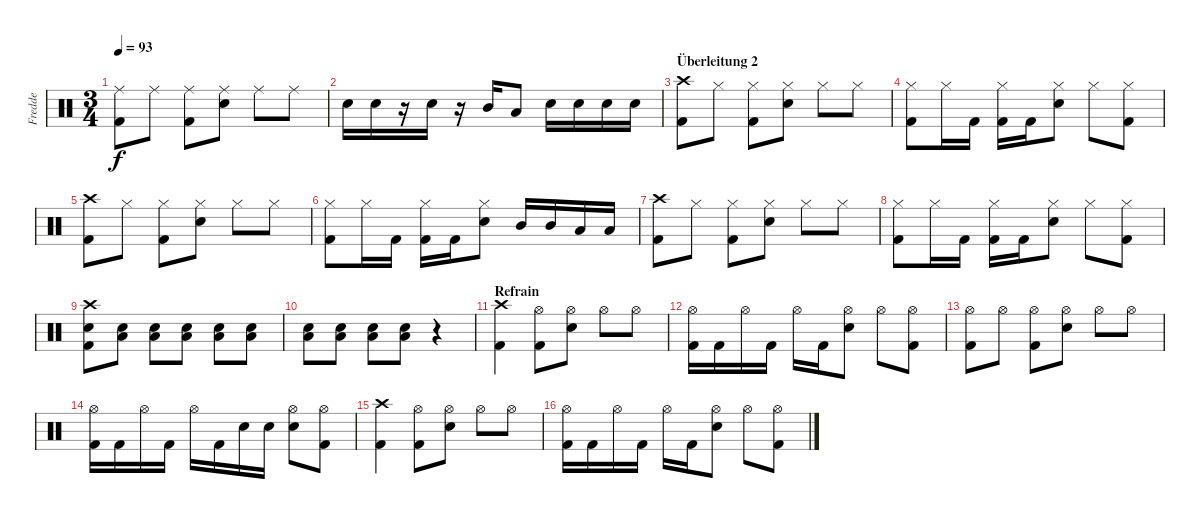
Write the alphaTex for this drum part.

\track ("Fredde" "Fredde") {instrument percussion}
\staff {score}
\articulation defaults
\ts (3 4)
\tempo 93
\clef neutral
\ks c
("Ride (middle)" "Kick (hit) 2").8{dy f} "Ride (middle)".8 ("Ride (middle)" "Kick (hit) 2").8 ("Ride (middle)" "Snare (hit) 2").8 "Ride (middle)".8 "Ride (middle)".8 |
"Snare (hit) 2".16 "Snare (hit) 2".16 r.16 "Snare (hit) 2".16 r.16 "Mid Tom (hit)".16 "Low Tom (hit)".8 "Snare (hit) 2".16 "Snare (hit) 2".16 "Snare (hit) 2".16 "Snare (hit) 2".16 |
\section ("" "Überleitung 2")
("Crash high (hit)" "Kick (hit) 2").8 "Hi-Hat (closed)".8 ("Hi-Hat (closed)" "Kick (hit) 2").8 ("Hi-Hat (closed)" "Snare (hit) 2").8 "Hi-Hat (closed)".8 "Hi-Hat (closed)".8 |
("Hi-Hat (closed)" "Kick (hit) 2").8 "Hi-Hat (closed)".16 "Kick (hit) 2".16 ("Hi-Hat (closed)" "Kick (hit) 2").16 "Kick (hit) 2".16 ("Hi-Hat (closed)" "Snare (hit) 2").8 "Hi-Hat (closed)".8 ("Hi-Hat (closed)" "Kick (hit) 2").8 |
("Crash high (hit)" "Kick (hit) 2").8 "Hi-Hat (closed)".8 ("Hi-Hat (closed)" "Kick (hit) 2").8 ("Hi-Hat (closed)" "Snare (hit) 2").8 "Hi-Hat (closed)".8 "Hi-Hat (closed)".8 |
("Hi-Hat (closed)" "Kick (hit) 2").8 "Hi-Hat (closed)".16 "Kick (hit) 2".16 ("Hi-Hat (closed)" "Kick (hit) 2").16 "Kick (hit) 2".16 ("Hi-Hat (closed)" "Snare (hit) 2").8 "Mid Tom (hit)".16 "Mid Tom (hit)".16 "Low Tom (hit)".16 "Low Tom (hit)".16 |
("Crash high (hit)" "Kick (hit) 2").8 "Hi-Hat (closed)".8 ("Hi-Hat (closed)" "Kick (hit) 2").8 ("Hi-Hat (closed)" "Snare (hit) 2").8 "Hi-Hat (closed)".8 "Hi-Hat (closed)".8 |
("Hi-Hat (closed)" "Kick (hit) 2").8 "Hi-Hat (closed)".16 "Kick (hit) 2".16 ("Hi-Hat (closed)" "Kick (hit) 2").16 "Kick (hit) 2".16 ("Hi-Hat (closed)" "Snare (hit) 2").8 "Hi-Hat (closed)".8 ("Hi-Hat (closed)" "Kick (hit) 2").8 |
("Crash high (hit)" "Snare (hit) 2" "Kick (hit) 2").8 ("Low Floor Tom (hit)" "Snare (hit) 2").8 ("Low Floor Tom (hit)" "Snare (hit) 2").8 ("Low Floor Tom (hit)" "Snare (hit) 2").8 ("Low Floor Tom (hit)" "Snare (hit) 2").8 ("Low Floor Tom (hit)" "Snare (hit) 2").8 |
("Low Floor Tom (hit)" "Snare (hit) 2").8 ("Low Floor Tom (hit)" "Snare (hit) 2").8 ("Low Floor Tom (hit)" "Snare (hit) 2").8 ("Low Floor Tom (hit)" "Snare (hit) 2").8 r.4 |
\section ("" "Refrain")
("Crash high (hit)" "Kick (hit) 2").4 ("Hi-Hat (open)" "Kick (hit) 2").8 ("Hi-Hat (open)" "Snare (hit) 2").8 "Hi-Hat (open)".8 "Hi-Hat (open)".8 |
("Hi-Hat (open)" "Kick (hit) 2").16 "Kick (hit) 2".16 "Hi-Hat (open)".16 "Kick (hit) 2".16 "Hi-Hat (open)".16 "Kick (hit) 2".16 ("Hi-Hat (open)" "Snare (hit) 2").8 "Hi-Hat (open)".8 ("Hi-Hat (open)" "Kick (hit) 2").8 |
("Hi-Hat (open)" "Kick (hit) 2").8 "Hi-Hat (open)".8 ("Hi-Hat (open)" "Kick (hit) 2").8 ("Hi-Hat (open)" "Snare (hit) 2").8 "Hi-Hat (open)".8 "Hi-Hat (open)".8 |
("Hi-Hat (open)" "Kick (hit) 2").16 "Kick (hit) 2".16 "Hi-Hat (open)".16 "Kick (hit) 2".16 "Hi-Hat (open)".16 "Kick (hit) 2".16 "Snare (hit) 2".16 "Snare (hit) 2".16 ("Hi-Hat (open)" "Snare (hit) 2").8 ("Hi-Hat (open)" "Kick (hit) 2").8 |
("Crash high (hit)" "Kick (hit) 2").4 ("Hi-Hat (open)" "Kick (hit) 2").8 ("Hi-Hat (open)" "Snare (hit) 2").8 "Hi-Hat (open)".8 "Hi-Hat (open)".8 |
("Hi-Hat (open)" "Kick (hit) 2").16 "Kick (hit) 2".16 "Hi-Hat (open)".16 "Kick (hit) 2".16 "Hi-Hat (open)".16 "Kick (hit) 2".16 ("Hi-Hat (open)" "Snare (hit) 2").8 "Hi-Hat (open)".8 ("Hi-Hat (open)" "Kick (hit) 2").8
